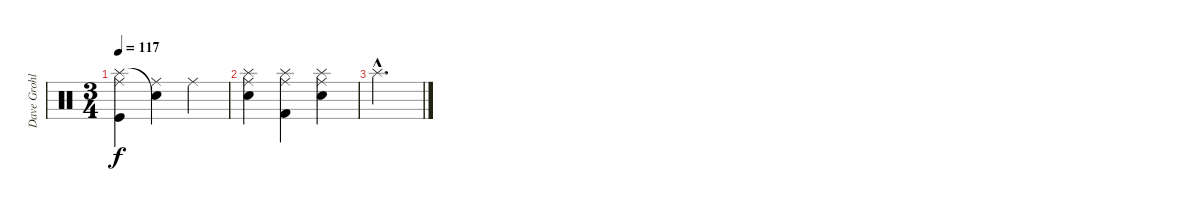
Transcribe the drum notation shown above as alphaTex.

\track ("Dave Grohl-Drums" "Dave Grohl") {instrument percussion}
\staff {score}
\articulation defaults
\ts (3 4)
\tempo 117
\clef neutral
\ks c
("Splash (hit)" "Kick (hit)" "Ride (middle)").4{dy f} ("Snare (hit)"{t} "Ride (middle)").4 "Ride (middle)".4 |
("Splash (hit)" "Ride (middle)" "Electric Snare (hit)").4 ("Splash (hit)" "Ride (middle)" "Kick (hit) 2").4 ("Splash (hit)" "Ride (middle)" "Electric Snare (hit)").4 |
"Splash (hit)"{hac}.2{d}
